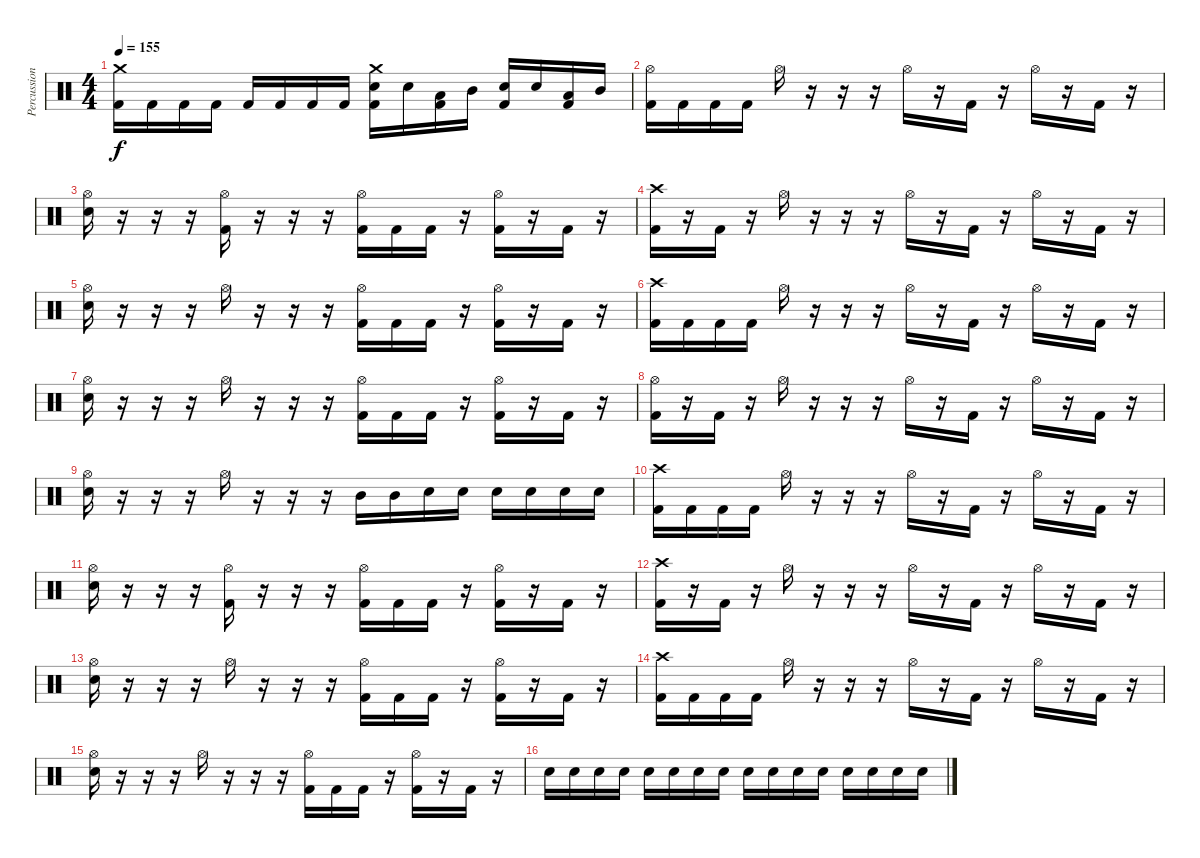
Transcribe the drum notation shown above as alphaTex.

\track ("Percussion" "Percussion") {instrument percussion}
\staff {score}
\articulation defaults
\ts (4 4)
\tempo 155
\clef neutral
\ks c
("Crash medium (hit)" "Kick (hit) 2").16{dy f} "Kick (hit) 2".16 "Kick (hit) 2".16 "Kick (hit) 2".16 "Kick (hit) 2".16 "Kick (hit) 2".16 "Kick (hit) 2".16 "Kick (hit) 2".16 ("Crash medium (hit)" "Electric Snare (hit)" "Kick (hit) 2").16 "Electric Snare (hit)".16 ("Low Tom (hit)" "Kick (hit) 2").16 "Mid Tom (hit)".16 ("Electric Snare (hit)" "Kick (hit) 2").16 "Electric Snare (hit)".16 ("Low Tom (hit)" "Kick (hit) 2").16 "Mid Tom (hit)".16 |
("Hi-Hat (open)" "Kick (hit) 2").16 "Kick (hit) 2".16 "Kick (hit) 2".16 "Kick (hit) 2".16 "Hi-Hat (open)".16 r.16 r.16 r.16 "Hi-Hat (open)".16 r.16 "Kick (hit) 2".16 r.16 "Hi-Hat (open)".16 r.16 "Kick (hit) 2".16 r.16 |
("Hi-Hat (open)" "Electric Snare (hit)").16 r.16 r.16 r.16 ("Hi-Hat (open)" "Kick (hit) 2").16 r.16 r.16 r.16 ("Hi-Hat (open)" "Kick (hit) 2").16 "Kick (hit) 2".16 "Kick (hit) 2".16 r.16 ("Hi-Hat (open)" "Kick (hit) 2").16 r.16 "Kick (hit) 2".16 r.16 |
("Crash high (hit)" "Kick (hit) 2").16 r.16 "Kick (hit) 2".16 r.16 "Hi-Hat (open)".16 r.16 r.16 r.16 "Hi-Hat (open)".16 r.16 "Kick (hit) 2".16 r.16 "Hi-Hat (open)".16 r.16 "Kick (hit) 2".16 r.16 |
("Hi-Hat (open)" "Electric Snare (hit)").16 r.16 r.16 r.16 "Hi-Hat (open)".16 r.16 r.16 r.16 ("Hi-Hat (open)" "Kick (hit) 2").16 "Kick (hit) 2".16 "Kick (hit) 2".16 r.16 ("Hi-Hat (open)" "Kick (hit) 2").16 r.16 "Kick (hit) 2".16 r.16 |
("Crash high (hit)" "Kick (hit) 2").16 "Kick (hit) 2".16 "Kick (hit) 2".16 "Kick (hit) 2".16 "Hi-Hat (open)".16 r.16 r.16 r.16 "Hi-Hat (open)".16 r.16 "Kick (hit) 2".16 r.16 "Hi-Hat (open)".16 r.16 "Kick (hit) 2".16 r.16 |
("Hi-Hat (open)" "Electric Snare (hit)").16 r.16 r.16 r.16 "Hi-Hat (open)".16 r.16 r.16 r.16 ("Hi-Hat (open)" "Kick (hit) 2").16 "Kick (hit) 2".16 "Kick (hit) 2".16 r.16 ("Hi-Hat (open)" "Kick (hit) 2").16 r.16 "Kick (hit) 2".16 r.16 |
("Hi-Hat (open)" "Kick (hit) 2").16 r.16 "Kick (hit) 2".16 r.16 "Hi-Hat (open)".16 r.16 r.16 r.16 "Hi-Hat (open)".16 r.16 "Kick (hit) 2".16 r.16 "Hi-Hat (open)".16 r.16 "Kick (hit) 2".16 r.16 |
("Hi-Hat (open)" "Electric Snare (hit)").16 r.16 r.16 r.16 "Hi-Hat (open)".16 r.16 r.16 r.16 "Mid Tom (hit)".16 "Mid Tom (hit)".16 "Electric Snare (hit)".16 "Electric Snare (hit)".16 "Electric Snare (hit)".16 "Electric Snare (hit)".16 "Electric Snare (hit)".16 "Electric Snare (hit)".16 |
("Crash high (hit)" "Kick (hit) 2").16 "Kick (hit) 2".16 "Kick (hit) 2".16 "Kick (hit) 2".16 "Hi-Hat (open)".16 r.16 r.16 r.16 "Hi-Hat (open)".16 r.16 "Kick (hit) 2".16 r.16 "Hi-Hat (open)".16 r.16 "Kick (hit) 2".16 r.16 |
("Hi-Hat (open)" "Electric Snare (hit)").16 r.16 r.16 r.16 ("Hi-Hat (open)" "Kick (hit) 2").16 r.16 r.16 r.16 ("Hi-Hat (open)" "Kick (hit) 2").16 "Kick (hit) 2".16 "Kick (hit) 2".16 r.16 ("Hi-Hat (open)" "Kick (hit) 2").16 r.16 "Kick (hit) 2".16 r.16 |
("Crash high (hit)" "Kick (hit) 2").16 r.16 "Kick (hit) 2".16 r.16 "Hi-Hat (open)".16 r.16 r.16 r.16 "Hi-Hat (open)".16 r.16 "Kick (hit) 2".16 r.16 "Hi-Hat (open)".16 r.16 "Kick (hit) 2".16 r.16 |
("Hi-Hat (open)" "Electric Snare (hit)").16 r.16 r.16 r.16 "Hi-Hat (open)".16 r.16 r.16 r.16 ("Hi-Hat (open)" "Kick (hit) 2").16 "Kick (hit) 2".16 "Kick (hit) 2".16 r.16 ("Hi-Hat (open)" "Kick (hit) 2").16 r.16 "Kick (hit) 2".16 r.16 |
("Crash high (hit)" "Kick (hit) 2").16 "Kick (hit) 2".16 "Kick (hit) 2".16 "Kick (hit) 2".16 "Hi-Hat (open)".16 r.16 r.16 r.16 "Hi-Hat (open)".16 r.16 "Kick (hit) 2".16 r.16 "Hi-Hat (open)".16 r.16 "Kick (hit) 2".16 r.16 |
("Hi-Hat (open)" "Electric Snare (hit)").16 r.16 r.16 r.16 "Hi-Hat (open)".16 r.16 r.16 r.16 ("Hi-Hat (open)" "Kick (hit) 2").16 "Kick (hit) 2".16 "Kick (hit) 2".16 r.16 ("Hi-Hat (open)" "Kick (hit) 2").16 r.16 "Kick (hit) 2".16 r.16 |
"Electric Snare (hit)".16 "Electric Snare (hit)".16 "Electric Snare (hit)".16 "Electric Snare (hit)".16 "Electric Snare (hit)".16 "Electric Snare (hit)".16 "Electric Snare (hit)".16 "Electric Snare (hit)".16 "Electric Snare (hit)".16 "Electric Snare (hit)".16 "Electric Snare (hit)".16 "Electric Snare (hit)".16 "Electric Snare (hit)".16 "Electric Snare (hit)".16 "Electric Snare (hit)".16 "Electric Snare (hit)".16
